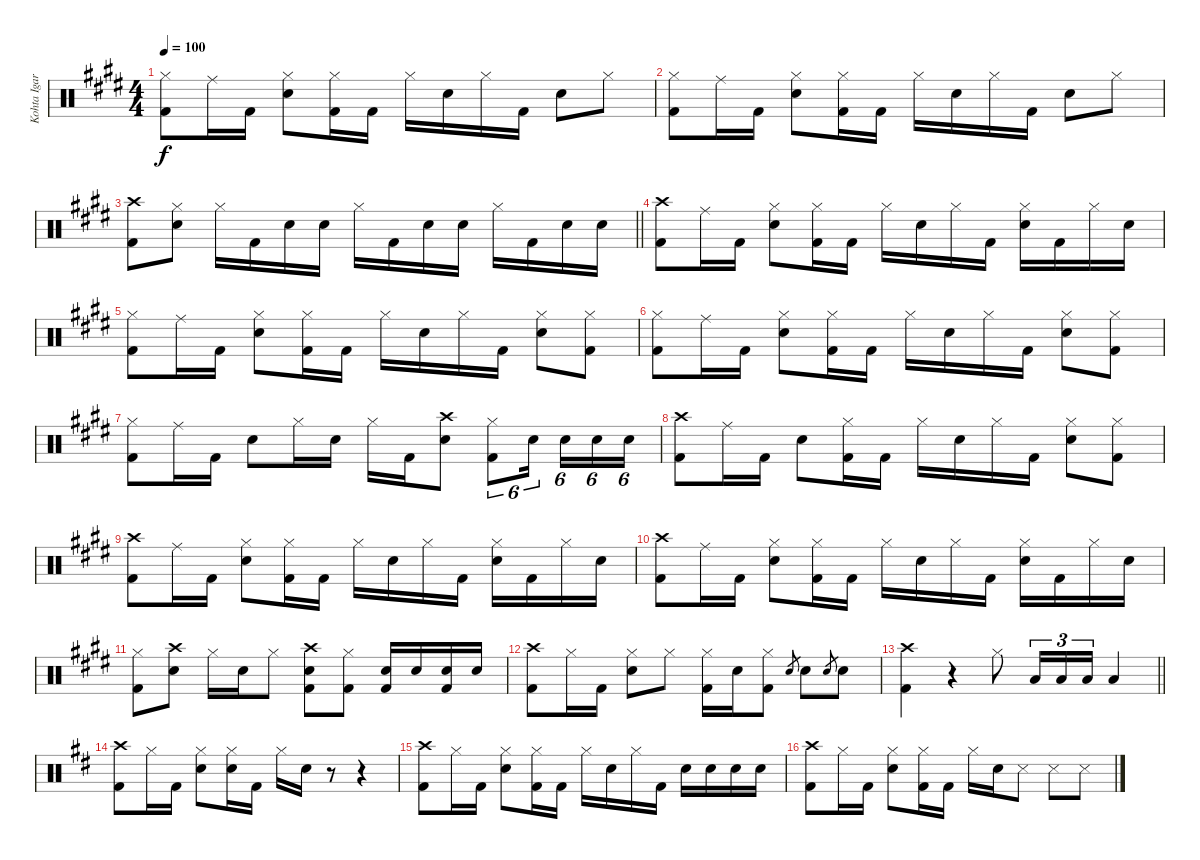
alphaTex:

\track ("Kohta Igarashi" "Kohta Igar") {instrument percussion}
\staff {score}
\articulation defaults
\ts (4 4)
\tempo 100
\clef neutral
\ks e
("Hi-Hat (closed)" "Kick (hit) 2").8{dy f} "Ride (middle)".16 "Kick (hit) 2".16 ("Hi-Hat (closed)" "Electric Snare (hit)").8 ("Hi-Hat (closed)" "Kick (hit) 2").16 "Kick (hit) 2".16 "Hi-Hat (closed)".16 "Electric Snare (hit)".16 "Hi-Hat (closed)".16 "Kick (hit) 2".16 "Electric Snare (hit)".8 "Hi-Hat (closed)".8 |
("Hi-Hat (closed)" "Kick (hit) 2").8 "Ride (middle)".16 "Kick (hit) 2".16 ("Hi-Hat (closed)" "Electric Snare (hit)").8 ("Hi-Hat (closed)" "Kick (hit) 2").16 "Kick (hit) 2".16 "Hi-Hat (closed)".16 "Electric Snare (hit)".16 "Hi-Hat (closed)".16 "Kick (hit) 2".16 "Electric Snare (hit)".8 "Hi-Hat (closed)".8 |
\barLineRight lightlight
("Crash high (hit)" "Kick (hit) 2").8 ("Hi-Hat (closed)" "Electric Snare (hit)").8 "Hi-Hat (closed)".16 "Kick (hit) 2".16 "Electric Snare (hit)".16 "Electric Snare (hit)".16 "Hi-Hat (closed)".16 "Kick (hit) 2".16 "Electric Snare (hit)".16 "Electric Snare (hit)".16 "Hi-Hat (closed)".16 "Kick (hit) 2".16 "Electric Snare (hit)".16 "Electric Snare (hit)".16 |
("Crash high (hit)" "Kick (hit) 2").8 "Ride (middle)".16 "Kick (hit) 2".16 ("Hi-Hat (closed)" "Electric Snare (hit)").8 ("Hi-Hat (closed)" "Kick (hit) 2").16 "Kick (hit) 2".16 "Hi-Hat (closed)".16 "Electric Snare (hit)".16 "Hi-Hat (closed)".16 "Kick (hit) 2".16 ("Hi-Hat (closed)" "Electric Snare (hit)").16 "Kick (hit) 2".16 "Hi-Hat (closed)".16 "Electric Snare (hit)".16 |
("Hi-Hat (closed)" "Kick (hit) 2").8 "Ride (middle)".16 "Kick (hit) 2".16 ("Hi-Hat (closed)" "Electric Snare (hit)").8 ("Hi-Hat (closed)" "Kick (hit) 2").16 "Kick (hit) 2".16 "Hi-Hat (closed)".16 "Electric Snare (hit)".16 "Hi-Hat (closed)".16 "Kick (hit) 2".16 ("Hi-Hat (closed)" "Electric Snare (hit)").8 ("Hi-Hat (closed)" "Kick (hit) 2").8 |
("Hi-Hat (closed)" "Kick (hit) 2").8 "Ride (middle)".16 "Kick (hit) 2".16 ("Hi-Hat (closed)" "Electric Snare (hit)").8 ("Hi-Hat (closed)" "Kick (hit) 2").16 "Kick (hit) 2".16 "Hi-Hat (closed)".16 "Electric Snare (hit)".16 "Hi-Hat (closed)".16 "Kick (hit) 2".16 ("Hi-Hat (closed)" "Electric Snare (hit)").8 ("Hi-Hat (closed)" "Kick (hit) 2").8 |
("Hi-Hat (closed)" "Kick (hit) 2").8 "Ride (middle)".16 "Kick (hit) 2".16 "Electric Snare (hit)".8 "Hi-Hat (closed)".16 "Electric Snare (hit)".16 "Hi-Hat (closed)".16 "Kick (hit) 2".16 ("Crash high (hit)" "Electric Snare (hit)").8 ("Hi-Hat (closed)" "Kick (hit) 2").8{tu (6 4)} "Electric Snare (hit)".16{tu (6 4)} "Electric Snare (hit)".16{tu (6 4)} "Electric Snare (hit)".16{tu (6 4)} "Electric Snare (hit)".16{tu (6 4)} |
("Crash high (hit)" "Kick (hit) 2").8 "Ride (middle)".16 "Kick (hit) 2".16 "Electric Snare (hit)".8 ("Hi-Hat (closed)" "Kick (hit) 2").16 "Kick (hit) 2".16 "Hi-Hat (closed)".16 "Electric Snare (hit)".16 "Hi-Hat (closed)".16 "Kick (hit) 2".16 ("Hi-Hat (closed)" "Electric Snare (hit)").8 ("Hi-Hat (closed)" "Kick (hit) 2").8 |
("Crash high (hit)" "Kick (hit) 2").8 "Ride (middle)".16 "Kick (hit) 2".16 ("Hi-Hat (closed)" "Electric Snare (hit)").8 ("Hi-Hat (closed)" "Kick (hit) 2").16 "Kick (hit) 2".16 "Hi-Hat (closed)".16 "Electric Snare (hit)".16 "Hi-Hat (closed)".16 "Kick (hit) 2".16 ("Hi-Hat (closed)" "Electric Snare (hit)").16 "Kick (hit) 2".16 "Hi-Hat (closed)".16 "Electric Snare (hit)".16 |
("Crash high (hit)" "Kick (hit) 2").8 "Ride (middle)".16 "Kick (hit) 2".16 ("Hi-Hat (closed)" "Electric Snare (hit)").8 ("Hi-Hat (closed)" "Kick (hit) 2").16 "Kick (hit) 2".16 "Hi-Hat (closed)".16 "Electric Snare (hit)".16 "Hi-Hat (closed)".16 "Kick (hit) 2".16 ("Hi-Hat (closed)" "Electric Snare (hit)").16 "Kick (hit) 2".16 "Hi-Hat (closed)".16 "Electric Snare (hit)".16 |
("Hi-Hat (closed)" "Kick (hit) 2").8 ("Crash high (hit)" "Electric Snare (hit)").8 "Hi-Hat (closed)".16 "Electric Snare (hit)".16 "Hi-Hat (closed)".8 ("Crash high (hit)" "Electric Snare (hit)" "Kick (hit) 2").8 ("Hi-Hat (closed)" "Kick (hit) 2").8 ("Electric Snare (hit)" "Kick (hit) 2").16 "Electric Snare (hit)".16 ("Electric Snare (hit)" "Kick (hit) 2").16 "Electric Snare (hit)".16 |
("Crash high (hit)" "Kick (hit) 2").8 "Hi-Hat (closed)".16 "Kick (hit) 2".16 ("Hi-Hat (closed)" "Electric Snare (hit)").8 "Hi-Hat (closed)".8 ("Hi-Hat (closed)" "Kick (hit) 2").16 "Electric Snare (hit)".16 ("Hi-Hat (closed)" "Kick (hit) 2").8 "Electric Snare (hit)".8{gr} "Electric Snare (hit)".8 "Electric Snare (hit)".8{gr} "Electric Snare (hit)".8 |
\barLineRight lightlight
("Crash high (hit)" "Kick (hit) 2").4 r.4 "Hi-Hat (closed)".8 "Low Floor Tom (hit)".16{tu (3 2)} "Low Floor Tom (hit)".16{tu (3 2)} "Low Floor Tom (hit)".16{tu (3 2)} "Low Floor Tom (hit)".4 |
\ks d
("Crash high (hit)" "Kick (hit) 2").8 "Hi-Hat (closed)".16 "Kick (hit) 2".16 ("Hi-Hat (closed)" "Electric Snare (hit)").8 ("Hi-Hat (closed)" "Electric Snare (hit)").16 "Kick (hit) 2".16 "Hi-Hat (closed)".16 "Electric Snare (hit)".16 r.8 r.4 |
("Crash high (hit)" "Kick (hit) 2").8 "Hi-Hat (closed)".16 "Kick (hit) 2".16 ("Hi-Hat (closed)" "Electric Snare (hit)").8 ("Hi-Hat (closed)" "Kick (hit) 2").16 "Kick (hit) 2".16 "Hi-Hat (closed)".16 "Electric Snare (hit)".16 "Hi-Hat (closed)".16 "Kick (hit) 2".16 "Electric Snare (hit)".16 "Electric Snare (hit)".16 "Electric Snare (hit)".16 "Electric Snare (hit)".16 |
("Crash high (hit)" "Kick (hit) 2").8 "Hi-Hat (closed)".16 "Kick (hit) 2".16 ("Hi-Hat (closed)" "Electric Snare (hit)").8 ("Hi-Hat (closed)" "Kick (hit) 2").16 "Kick (hit) 2".16 "Hi-Hat (closed)".16 "Electric Snare (hit)".16 "Snare (side stick) 3".8 "Snare (side stick) 3".8 "Snare (side stick) 3".8
